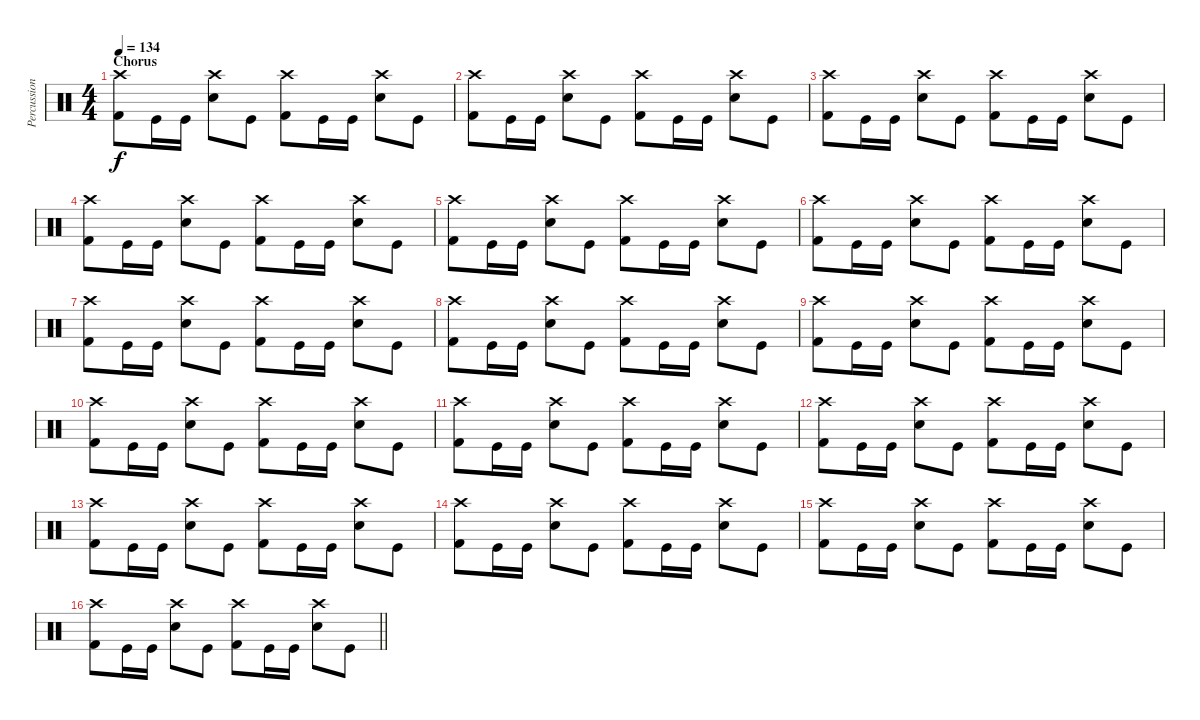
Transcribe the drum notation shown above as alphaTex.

\track ("Percussion" "Percussion") {instrument percussion}
\staff {score}
\articulation defaults
\ts (4 4)
\section ("" "Chorus")
\tempo 134
\clef neutral
\ks c
("Crash high (hit)" "Kick (hit) 2").8{dy f} "Kick (hit)".16 "Kick (hit)".16 ("Crash high (hit)" "Electric Snare (hit)").8 "Kick (hit)".8 ("Crash high (hit)" "Kick (hit) 2").8 "Kick (hit)".16 "Kick (hit)".16 ("Crash high (hit)" "Electric Snare (hit)").8 "Kick (hit)".8 |
("Crash high (hit)" "Kick (hit) 2").8 "Kick (hit)".16 "Kick (hit)".16 ("Crash high (hit)" "Electric Snare (hit)").8 "Kick (hit)".8 ("Crash high (hit)" "Kick (hit) 2").8 "Kick (hit)".16 "Kick (hit)".16 ("Crash high (hit)" "Electric Snare (hit)").8 "Kick (hit)".8 |
("Crash high (hit)" "Kick (hit) 2").8 "Kick (hit)".16 "Kick (hit)".16 ("Crash high (hit)" "Electric Snare (hit)").8 "Kick (hit)".8 ("Crash high (hit)" "Kick (hit) 2").8 "Kick (hit)".16 "Kick (hit)".16 ("Crash high (hit)" "Electric Snare (hit)").8 "Kick (hit)".8 |
("Crash high (hit)" "Kick (hit) 2").8 "Kick (hit)".16 "Kick (hit)".16 ("Crash high (hit)" "Electric Snare (hit)").8 "Kick (hit)".8 ("Crash high (hit)" "Kick (hit) 2").8 "Kick (hit)".16 "Kick (hit)".16 ("Crash high (hit)" "Electric Snare (hit)").8 "Kick (hit)".8 |
("Crash high (hit)" "Kick (hit) 2").8 "Kick (hit)".16 "Kick (hit)".16 ("Crash high (hit)" "Electric Snare (hit)").8 "Kick (hit)".8 ("Crash high (hit)" "Kick (hit) 2").8 "Kick (hit)".16 "Kick (hit)".16 ("Crash high (hit)" "Electric Snare (hit)").8 "Kick (hit)".8 |
("Crash high (hit)" "Kick (hit) 2").8 "Kick (hit)".16 "Kick (hit)".16 ("Crash high (hit)" "Electric Snare (hit)").8 "Kick (hit)".8 ("Crash high (hit)" "Kick (hit) 2").8 "Kick (hit)".16 "Kick (hit)".16 ("Crash high (hit)" "Electric Snare (hit)").8 "Kick (hit)".8 |
("Crash high (hit)" "Kick (hit) 2").8 "Kick (hit)".16 "Kick (hit)".16 ("Crash high (hit)" "Electric Snare (hit)").8 "Kick (hit)".8 ("Crash high (hit)" "Kick (hit) 2").8 "Kick (hit)".16 "Kick (hit)".16 ("Crash high (hit)" "Electric Snare (hit)").8 "Kick (hit)".8 |
("Crash high (hit)" "Kick (hit) 2").8 "Kick (hit)".16 "Kick (hit)".16 ("Crash high (hit)" "Electric Snare (hit)").8 "Kick (hit)".8 ("Crash high (hit)" "Kick (hit) 2").8 "Kick (hit)".16 "Kick (hit)".16 ("Crash high (hit)" "Electric Snare (hit)").8 "Kick (hit)".8 |
("Crash high (hit)" "Kick (hit) 2").8 "Kick (hit)".16 "Kick (hit)".16 ("Crash high (hit)" "Electric Snare (hit)").8 "Kick (hit)".8 ("Crash high (hit)" "Kick (hit) 2").8 "Kick (hit)".16 "Kick (hit)".16 ("Crash high (hit)" "Electric Snare (hit)").8 "Kick (hit)".8 |
("Crash high (hit)" "Kick (hit) 2").8 "Kick (hit)".16 "Kick (hit)".16 ("Crash high (hit)" "Electric Snare (hit)").8 "Kick (hit)".8 ("Crash high (hit)" "Kick (hit) 2").8 "Kick (hit)".16 "Kick (hit)".16 ("Crash high (hit)" "Electric Snare (hit)").8 "Kick (hit)".8 |
("Crash high (hit)" "Kick (hit) 2").8 "Kick (hit)".16 "Kick (hit)".16 ("Crash high (hit)" "Electric Snare (hit)").8 "Kick (hit)".8 ("Crash high (hit)" "Kick (hit) 2").8 "Kick (hit)".16 "Kick (hit)".16 ("Crash high (hit)" "Electric Snare (hit)").8 "Kick (hit)".8 |
("Crash high (hit)" "Kick (hit) 2").8 "Kick (hit)".16 "Kick (hit)".16 ("Crash high (hit)" "Electric Snare (hit)").8 "Kick (hit)".8 ("Crash high (hit)" "Kick (hit) 2").8 "Kick (hit)".16 "Kick (hit)".16 ("Crash high (hit)" "Electric Snare (hit)").8 "Kick (hit)".8 |
("Crash high (hit)" "Kick (hit) 2").8 "Kick (hit)".16 "Kick (hit)".16 ("Crash high (hit)" "Electric Snare (hit)").8 "Kick (hit)".8 ("Crash high (hit)" "Kick (hit) 2").8 "Kick (hit)".16 "Kick (hit)".16 ("Crash high (hit)" "Electric Snare (hit)").8 "Kick (hit)".8 |
("Crash high (hit)" "Kick (hit) 2").8 "Kick (hit)".16 "Kick (hit)".16 ("Crash high (hit)" "Electric Snare (hit)").8 "Kick (hit)".8 ("Crash high (hit)" "Kick (hit) 2").8 "Kick (hit)".16 "Kick (hit)".16 ("Crash high (hit)" "Electric Snare (hit)").8 "Kick (hit)".8 |
("Crash high (hit)" "Kick (hit) 2").8 "Kick (hit)".16 "Kick (hit)".16 ("Crash high (hit)" "Electric Snare (hit)").8 "Kick (hit)".8 ("Crash high (hit)" "Kick (hit) 2").8 "Kick (hit)".16 "Kick (hit)".16 ("Crash high (hit)" "Electric Snare (hit)").8 "Kick (hit)".8 |
\barLineRight lightlight
("Crash high (hit)" "Kick (hit) 2").8 "Kick (hit)".16 "Kick (hit)".16 ("Crash high (hit)" "Electric Snare (hit)").8 "Kick (hit)".8 ("Crash high (hit)" "Kick (hit) 2").8 "Kick (hit)".16 "Kick (hit)".16 ("Crash high (hit)" "Electric Snare (hit)").8 "Kick (hit)".8
